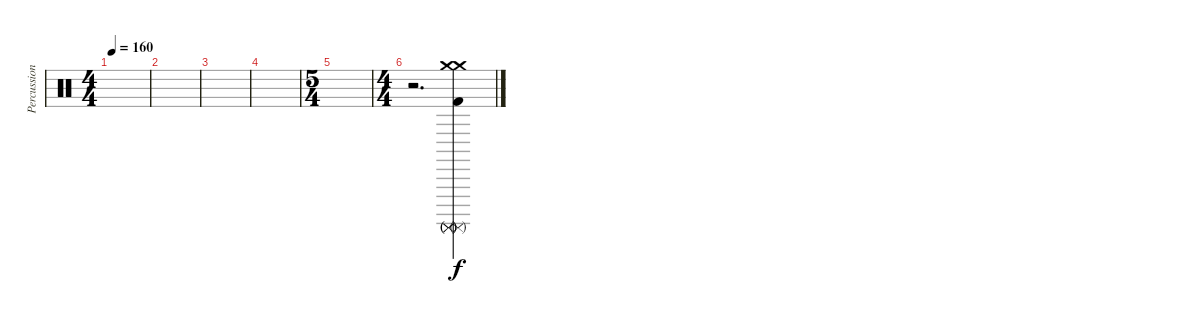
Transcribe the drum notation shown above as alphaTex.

\track ("Percussions" "Percussion") {instrument percussion}
\staff {score}
\articulation defaults
\ts (4 4)
\tempo 160
\clef neutral
\ks c
|
|
|
|
\ts (5 4)
|
\ts (4 4)
r.2{d} ("Crash medium (hit)" "Surdo (mute)" "Surdo (mute)" "Surdo (mute)" "Crash medium (hit)" "Kick (hit) 2").4
